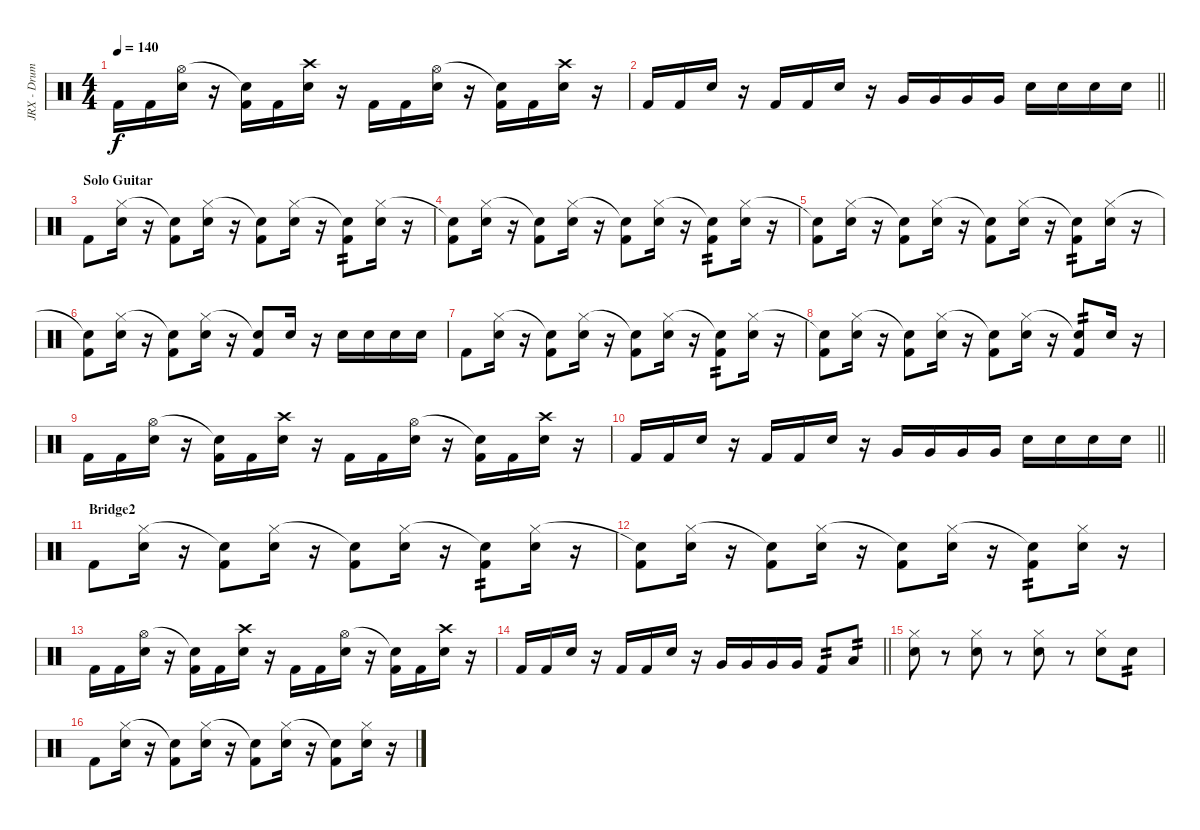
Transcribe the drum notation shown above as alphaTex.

\track ("JRX - Drum" "JRX - Drum") {instrument percussion}
\staff {score}
\articulation defaults
\ts (4 4)
\tempo 140
\clef neutral
\ks c "Kick (hit) 2".16{dy f} "Kick (hit) 2".16
("Hi-Hat (open)" "Electric Snare (hit)").16 r.16 ("Snare (hit)"{t} "Kick (hit) 2").16 "Kick (hit) 2".16 ("Electric Snare (hit)" "Crash high (hit)").16 r.16 "Kick (hit) 2".16 "Kick (hit) 2".16 ("Hi-Hat (open)" "Electric Snare (hit)").16 r.16 ("Snare (hit)"{t} "Kick (hit) 2").16 "Kick (hit) 2".16 ("Electric Snare (hit)" "Crash high (hit)").16 r.16 |
\barLineRight lightlight "Kick (hit) 2".16 "Kick (hit) 2".16 "Electric Snare (hit)".16
r.16 "Kick (hit) 2".16 "Kick (hit) 2".16 "Electric Snare (hit)".16 r.16 "Very Low Tom (hit)".16{volume 9} "Very Low Tom (hit)".16{volume 9} "Very Low Tom (hit)".16{volume 10} "Very Low Tom (hit)".16{volume 11} "Electric Snare (hit)".16{volume 12} "Electric Snare (hit)".16{volume 16} "Electric Snare (hit)".16 "Electric Snare (hit)".16 |
\section ("" "Solo Guitar")
"Kick (hit) 2".8 ("Hi-Hat (closed)" "Electric Snare (hit)").16 r.16 ("Snare (hit)"{t} "Kick (hit) 2").8 ("Hi-Hat (closed)" "Electric Snare (hit)").16 r.16 ("Snare (hit)"{t} "Kick (hit) 2").8 ("Hi-Hat (closed)" "Electric Snare (hit)").16 r.16 ("Snare (hit)"{t} "Kick (hit) 2").8{tp 2} ("Hi-Hat (closed)" "Electric Snare (hit)").16 r.16 |
("Snare (hit)"{t} "Kick (hit) 2").8 ("Hi-Hat (closed)" "Electric Snare (hit)").16 r.16 ("Snare (hit)"{t} "Kick (hit) 2").8 ("Hi-Hat (closed)" "Electric Snare (hit)").16 r.16 ("Snare (hit)"{t} "Kick (hit) 2").8 ("Hi-Hat (closed)" "Electric Snare (hit)").16 r.16 ("Snare (hit)"{t} "Kick (hit) 2").8{tp 2} ("Hi-Hat (closed)" "Electric Snare (hit)").16 r.16 |
("Snare (hit)"{t} "Kick (hit) 2").8 ("Hi-Hat (closed)" "Electric Snare (hit)").16 r.16 ("Snare (hit)"{t} "Kick (hit) 2").8 ("Hi-Hat (closed)" "Electric Snare (hit)").16 r.16 ("Snare (hit)"{t} "Kick (hit) 2").8 ("Hi-Hat (closed)" "Electric Snare (hit)").16 r.16 ("Snare (hit)"{t} "Kick (hit) 2").8{tp 2} ("Hi-Hat (closed)" "Electric Snare (hit)").16 r.16 |
("Snare (hit)"{t} "Kick (hit) 2").8 ("Hi-Hat (closed)" "Electric Snare (hit)").16 r.16 ("Snare (hit)"{t} "Kick (hit) 2").8 ("Hi-Hat (closed)" "Electric Snare (hit)").16 r.16 ("Snare (hit)"{t} "Kick (hit) 2").8 "Electric Snare (hit)".16 r.16 "Electric Snare (hit)".16 "Electric Snare (hit)".16 "Electric Snare (hit)".16 "Electric Snare (hit)".16 |
"Kick (hit) 2".8 ("Hi-Hat (closed)" "Electric Snare (hit)").16 r.16 ("Snare (hit)"{t} "Kick (hit) 2").8 ("Hi-Hat (closed)" "Electric Snare (hit)").16 r.16 ("Snare (hit)"{t} "Kick (hit) 2").8 ("Hi-Hat (closed)" "Electric Snare (hit)").16 r.16 ("Snare (hit)"{t} "Kick (hit) 2").8{tp 2} ("Hi-Hat (closed)" "Electric Snare (hit)").16 r.16 |
("Snare (hit)"{t} "Kick (hit) 2").8 ("Hi-Hat (closed)" "Electric Snare (hit)").16 r.16 ("Snare (hit)"{t} "Kick (hit) 2").8 ("Hi-Hat (closed)" "Electric Snare (hit)").16 r.16 ("Snare (hit)"{t} "Kick (hit) 2").8 ("Hi-Hat (closed)" "Electric Snare (hit)").16 r.16 ("Snare (hit)"{t} "Kick (hit) 2").8{tp 2} "Electric Snare (hit)".16 r.16 |
"Kick (hit) 2".16 "Kick (hit) 2".16 ("Hi-Hat (open)" "Electric Snare (hit)").16 r.16 ("Snare (hit)"{t} "Kick (hit) 2").16 "Kick (hit) 2".16 ("Electric Snare (hit)" "Crash high (hit)").16 r.16 "Kick (hit) 2".16 "Kick (hit) 2".16 ("Hi-Hat (open)" "Electric Snare (hit)").16 r.16 ("Snare (hit)"{t} "Kick (hit) 2").16 "Kick (hit) 2".16 ("Electric Snare (hit)" "Crash high (hit)").16 r.16 |
\barLineRight lightlight "Kick (hit) 2".16 "Kick (hit) 2".16 "Electric Snare (hit)".16
r.16 "Kick (hit) 2".16 "Kick (hit) 2".16 "Electric Snare (hit)".16 r.16 "Very Low Tom (hit)".16{volume 9} "Very Low Tom (hit)".16{volume 9} "Very Low Tom (hit)".16{volume 10} "Very Low Tom (hit)".16{volume 11} "Electric Snare (hit)".16{volume 12} "Electric Snare (hit)".16{volume 16} "Electric Snare (hit)".16 "Electric Snare (hit)".16 |
\section ("" "Bridge2")
"Kick (hit) 2".8 ("Hi-Hat (closed)" "Electric Snare (hit)").16 r.16 ("Snare (hit)"{t} "Kick (hit) 2").8 ("Hi-Hat (closed)" "Electric Snare (hit)").16 r.16 ("Snare (hit)"{t} "Kick (hit) 2").8 ("Hi-Hat (closed)" "Electric Snare (hit)").16 r.16 ("Snare (hit)"{t} "Kick (hit) 2").8{tp 2} ("Hi-Hat (closed)" "Electric Snare (hit)").16 r.16 |
("Snare (hit)"{t} "Kick (hit) 2").8 ("Hi-Hat (closed)" "Electric Snare (hit)").16 r.16 ("Snare (hit)"{t} "Kick (hit) 2").8 ("Hi-Hat (closed)" "Electric Snare (hit)").16 r.16 ("Snare (hit)"{t} "Kick (hit) 2").8 ("Hi-Hat (closed)" "Electric Snare (hit)").16 r.16 ("Snare (hit)"{t} "Kick (hit) 2").8{tp 2} ("Hi-Hat (closed)" "Electric Snare (hit)").16 r.16 |
"Kick (hit) 2".16 "Kick (hit) 2".16 ("Hi-Hat (open)" "Electric Snare (hit)").16 r.16 ("Snare (hit)"{t} "Kick (hit) 2").16 "Kick (hit) 2".16 ("Electric Snare (hit)" "Crash high (hit)").16 r.16 "Kick (hit) 2".16 "Kick (hit) 2".16 ("Hi-Hat (open)" "Electric Snare (hit)").16 r.16 ("Snare (hit)"{t} "Kick (hit) 2").16 "Kick (hit) 2".16 ("Electric Snare (hit)" "Crash high (hit)").16 r.16 |
\barLineRight lightlight "Kick (hit) 2".16 "Kick (hit) 2".16 "Electric Snare (hit)".16
r.16 "Kick (hit) 2".16 "Kick (hit) 2".16 "Electric Snare (hit)".16 r.16 "Very Low Tom (hit)".16 "Very Low Tom (hit)".16 "Very Low Tom (hit)".16 "Very Low Tom (hit)".16 "Kick (hit) 2".8{tp 2} "Low Floor Tom (hit)".8{tp 2} |
("Hi-Hat (closed)" "Electric Snare (hit)").8 r.8 ("Hi-Hat (closed)" "Electric Snare (hit)").8 r.8 ("Hi-Hat (closed)" "Electric Snare (hit)").8 r.8 ("Hi-Hat (closed)" "Electric Snare (hit)").8 "Electric Snare (hit)".8{tp 2} |
"Kick (hit) 2".8 ("Hi-Hat (closed)" "Electric Snare (hit)").16 r.16 ("Snare (hit)"{t} "Kick (hit) 2").8 ("Hi-Hat (closed)" "Electric Snare (hit)").16 r.16 ("Snare (hit)"{t} "Kick (hit) 2").8 ("Hi-Hat (closed)" "Electric Snare (hit)").16 r.16 ("Snare (hit)"{t} "Kick (hit) 2").8 ("Hi-Hat (closed)" "Electric Snare (hit)").16 r.16
